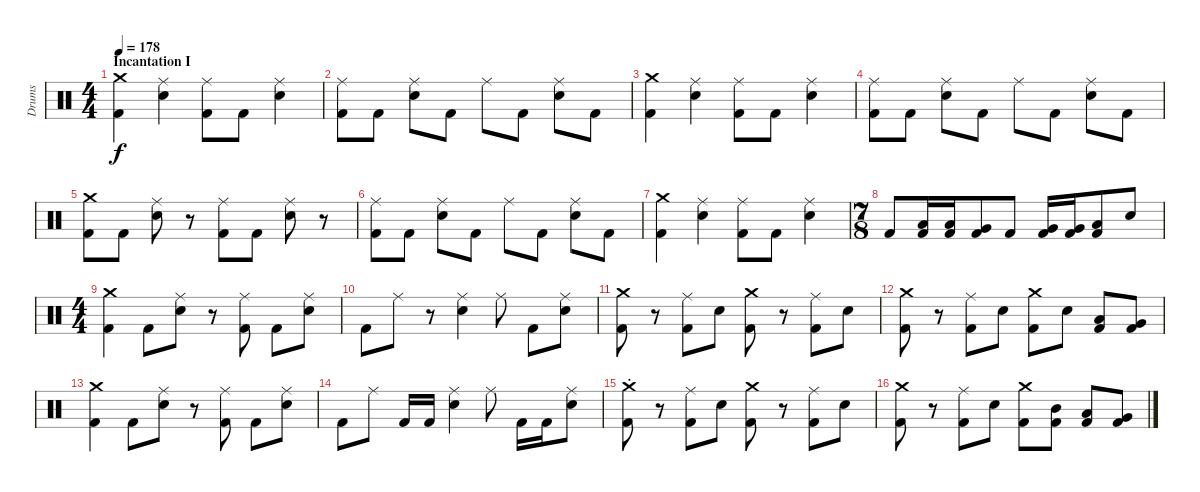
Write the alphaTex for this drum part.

\track ("Drums" "Drums") {instrument percussion}
\staff {score}
\articulation defaults
\ts (4 4)
\section ("" "Incantation I")
\tempo 178
\clef neutral
\ks c
("Crash medium (hit)" "Kick (hit) 2").4{dy f} ("Ride (middle)" "Electric Snare (hit)").4 ("Ride (middle)" "Kick (hit) 2").8 "Kick (hit) 2".8 ("Ride (middle)" "Electric Snare (hit)").4 |
("Ride (middle)" "Kick (hit) 2").8 "Kick (hit) 2".8 ("Ride (middle)" "Electric Snare (hit)").8 "Kick (hit) 2".8 "Ride (middle)".8 "Kick (hit) 2".8 ("Ride (middle)" "Electric Snare (hit)").8 "Kick (hit) 2".8 |
("Crash medium (hit)" "Kick (hit) 2").4 ("Ride (middle)" "Electric Snare (hit)").4 ("Ride (middle)" "Kick (hit) 2").8 "Kick (hit) 2".8 ("Ride (middle)" "Electric Snare (hit)").4 |
("Ride (middle)" "Kick (hit) 2").8 "Kick (hit) 2".8 ("Ride (middle)" "Electric Snare (hit)").8 "Kick (hit) 2".8 "Ride (middle)".8 "Kick (hit) 2".8 ("Ride (middle)" "Electric Snare (hit)").8 "Kick (hit) 2".8 |
("Crash medium (hit)" "Kick (hit) 2").8 "Kick (hit) 2".8 ("Ride (middle)" "Electric Snare (hit)").8 r.8 ("Ride (middle)" "Kick (hit) 2").8 "Kick (hit) 2".8 ("Ride (middle)" "Electric Snare (hit)").8 r.8 |
("Ride (middle)" "Kick (hit) 2").8 "Kick (hit) 2".8 ("Ride (middle)" "Electric Snare (hit)").8 "Kick (hit) 2".8 "Ride (middle)".8 "Kick (hit) 2".8 ("Ride (middle)" "Electric Snare (hit)").8 "Kick (hit) 2".8 |
("Crash medium (hit)" "Kick (hit) 2").4 ("Ride (middle)" "Electric Snare (hit)").4 ("Ride (middle)" "Kick (hit) 2").8 "Kick (hit) 2".8 ("Ride (middle)" "Electric Snare (hit)").4 |
\ts (7 8)
"Kick (hit) 2".8 ("Low Tom (hit)" "Kick (hit) 2").16 ("Low Tom (hit)" "Kick (hit) 2").16 ("Very Low Tom (hit)" "Kick (hit) 2").8 "Kick (hit) 2".8 ("Very Low Tom (hit)" "Kick (hit) 2").16 ("Very Low Tom (hit)" "Kick (hit) 2").16 ("Low Floor Tom (hit)" "Kick (hit) 2").8 "Electric Snare (hit)".8 |
\ts (4 4)
\section ("" "")
("Crash medium (hit)" "Kick (hit) 2").4 "Kick (hit) 2".8 ("Ride (middle)" "Electric Snare (hit)").8 r.8 ("Ride (middle)" "Kick (hit) 2").8 "Kick (hit) 2".8 ("Ride (middle)" "Electric Snare (hit)").8 |
"Kick (hit) 2".8 "Ride (middle)".8 r.8 ("Ride (middle)" "Electric Snare (hit)").4 "Ride (middle)".8 "Kick (hit) 2".8 ("Ride (middle)" "Electric Snare (hit)").8 |
("Crash medium (hit)" "Kick (hit) 2").8 r.8 ("Ride (middle)" "Kick (hit) 2").8 "Electric Snare (hit)".8 ("Crash medium (hit)" "Kick (hit) 2").8 r.8 ("Ride (middle)" "Kick (hit) 2").8 "Electric Snare (hit)".8 |
("Crash medium (hit)" "Kick (hit) 2").8 r.8 ("Ride (middle)" "Kick (hit) 2").8 "Electric Snare (hit)".8 ("Crash medium (hit)" "Kick (hit) 2").8 "Electric Snare (hit)".8 ("Low Tom (hit)" "Kick (hit) 2").8 ("Very Low Tom (hit)" "Kick (hit) 2").8 |
("Crash medium (hit)" "Kick (hit) 2").4 "Kick (hit) 2".8 ("Ride (middle)" "Electric Snare (hit)").8 r.8 ("Ride (middle)" "Kick (hit) 2").8 "Kick (hit) 2".8 ("Ride (middle)" "Electric Snare (hit)").8 |
"Kick (hit) 2".8 "Ride (middle)".8 "Kick (hit) 2".16 "Kick (hit) 2".16 ("Ride (middle)" "Electric Snare (hit)").4 "Ride (middle)".8 "Kick (hit) 2".16 "Kick (hit) 2".16 ("Ride (middle)" "Electric Snare (hit)").8 |
("Crash medium (hit)" "Kick (hit) 2"{st}).8 r.8 ("Ride (middle)" "Kick (hit) 2").8 "Electric Snare (hit)".8 ("Crash medium (hit)" "Kick (hit) 2").8 r.8 ("Ride (middle)" "Kick (hit) 2").8 "Electric Snare (hit)".8 |
("Crash medium (hit)" "Kick (hit) 2").8 r.8 ("Ride (middle)" "Kick (hit) 2").8 "Electric Snare (hit)".8 ("Crash medium (hit)" "Kick (hit) 2").8 ("Mid Tom (hit)" "Kick (hit) 2").8 ("Low Tom (hit)" "Kick (hit) 2").8 ("Very Low Tom (hit)" "Kick (hit) 2").8
